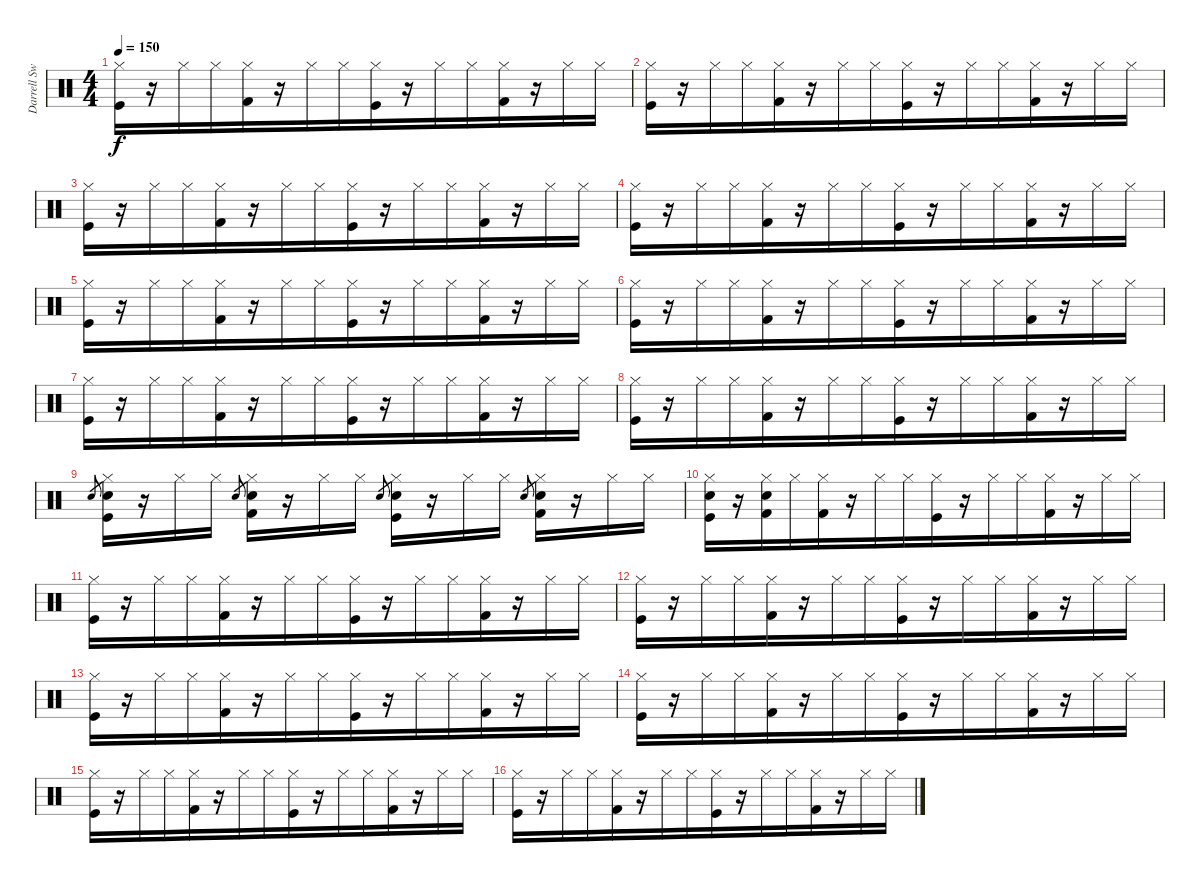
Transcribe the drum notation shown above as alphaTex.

\track ("Darrell Sweet (drums)" "Darrell Sw") {instrument percussion}
\staff {score}
\articulation defaults
\ts (4 4)
\tempo 150
\clef neutral
\ks c
("Hi-Hat (closed)" "Kick (hit)").16{dy f} r.16 "Hi-Hat (closed)".16 "Hi-Hat (closed)".16{beam merge} ("Hi-Hat (closed)" "Kick (hit) 2").16 r.16 "Hi-Hat (closed)".16 "Hi-Hat (closed)".16{beam merge} ("Hi-Hat (closed)" "Kick (hit)").16 r.16 "Hi-Hat (closed)".16 "Hi-Hat (closed)".16{beam merge} ("Hi-Hat (closed)" "Kick (hit) 2").16 r.16 "Hi-Hat (closed)".16 "Hi-Hat (closed)".16 |
("Hi-Hat (closed)" "Kick (hit)").16 r.16 "Hi-Hat (closed)".16 "Hi-Hat (closed)".16{beam merge} ("Hi-Hat (closed)" "Kick (hit) 2").16 r.16 "Hi-Hat (closed)".16 "Hi-Hat (closed)".16{beam merge} ("Hi-Hat (closed)" "Kick (hit)").16 r.16 "Hi-Hat (closed)".16 "Hi-Hat (closed)".16{beam merge} ("Hi-Hat (closed)" "Kick (hit) 2").16 r.16 "Hi-Hat (closed)".16 "Hi-Hat (closed)".16 |
("Hi-Hat (closed)" "Kick (hit)").16 r.16 "Hi-Hat (closed)".16 "Hi-Hat (closed)".16{beam merge} ("Hi-Hat (closed)" "Kick (hit) 2").16 r.16 "Hi-Hat (closed)".16 "Hi-Hat (closed)".16{beam merge} ("Hi-Hat (closed)" "Kick (hit)").16 r.16 "Hi-Hat (closed)".16 "Hi-Hat (closed)".16{beam merge} ("Hi-Hat (closed)" "Kick (hit) 2").16 r.16 "Hi-Hat (closed)".16 "Hi-Hat (closed)".16 |
("Hi-Hat (closed)" "Kick (hit)").16 r.16 "Hi-Hat (closed)".16 "Hi-Hat (closed)".16{beam merge} ("Hi-Hat (closed)" "Kick (hit) 2").16 r.16 "Hi-Hat (closed)".16 "Hi-Hat (closed)".16{beam merge} ("Hi-Hat (closed)" "Kick (hit)").16 r.16 "Hi-Hat (closed)".16 "Hi-Hat (closed)".16{beam merge} ("Hi-Hat (closed)" "Kick (hit) 2").16 r.16 "Hi-Hat (closed)".16 "Hi-Hat (closed)".16 |
("Hi-Hat (closed)" "Kick (hit)").16 r.16 "Hi-Hat (closed)".16 "Hi-Hat (closed)".16{beam merge} ("Hi-Hat (closed)" "Kick (hit) 2").16 r.16 "Hi-Hat (closed)".16 "Hi-Hat (closed)".16{beam merge} ("Hi-Hat (closed)" "Kick (hit)").16 r.16 "Hi-Hat (closed)".16 "Hi-Hat (closed)".16{beam merge} ("Hi-Hat (closed)" "Kick (hit) 2").16 r.16 "Hi-Hat (closed)".16 "Hi-Hat (closed)".16 |
("Hi-Hat (closed)" "Kick (hit)").16 r.16 "Hi-Hat (closed)".16 "Hi-Hat (closed)".16{beam merge} ("Hi-Hat (closed)" "Kick (hit) 2").16 r.16 "Hi-Hat (closed)".16 "Hi-Hat (closed)".16{beam merge} ("Hi-Hat (closed)" "Kick (hit)").16 r.16 "Hi-Hat (closed)".16 "Hi-Hat (closed)".16{beam merge} ("Hi-Hat (closed)" "Kick (hit) 2").16 r.16 "Hi-Hat (closed)".16 "Hi-Hat (closed)".16 |
("Hi-Hat (closed)" "Kick (hit)").16 r.16 "Hi-Hat (closed)".16 "Hi-Hat (closed)".16{beam merge} ("Hi-Hat (closed)" "Kick (hit) 2").16 r.16 "Hi-Hat (closed)".16 "Hi-Hat (closed)".16{beam merge} ("Hi-Hat (closed)" "Kick (hit)").16 r.16 "Hi-Hat (closed)".16 "Hi-Hat (closed)".16{beam merge} ("Hi-Hat (closed)" "Kick (hit) 2").16 r.16 "Hi-Hat (closed)".16 "Hi-Hat (closed)".16 |
("Hi-Hat (closed)" "Kick (hit)").16 r.16 "Hi-Hat (closed)".16 "Hi-Hat (closed)".16{beam merge} ("Hi-Hat (closed)" "Kick (hit) 2").16 r.16 "Hi-Hat (closed)".16 "Hi-Hat (closed)".16{beam merge} ("Hi-Hat (closed)" "Kick (hit)").16 r.16 "Hi-Hat (closed)".16 "Hi-Hat (closed)".16{beam merge} ("Hi-Hat (closed)" "Kick (hit) 2").16 r.16 "Hi-Hat (closed)".16 "Hi-Hat (closed)".16 |
"Snare (hit) 2".8{gr} ("Hi-Hat (closed)" "Kick (hit)" "Snare (hit) 2").16 r.16 "Hi-Hat (closed)".16 "Hi-Hat (closed)".16 "Snare (hit) 2".8{gr beam merge} ("Hi-Hat (closed)" "Kick (hit) 2" "Snare (hit) 2").16 r.16 "Hi-Hat (closed)".16 "Hi-Hat (closed)".16 "Snare (hit) 2".8{gr beam merge} ("Hi-Hat (closed)" "Kick (hit)" "Snare (hit) 2").16 r.16 "Hi-Hat (closed)".16 "Hi-Hat (closed)".16 "Snare (hit) 2".8{gr beam merge} ("Hi-Hat (closed)" "Kick (hit) 2" "Snare (hit) 2").16 r.16 "Hi-Hat (closed)".16 "Hi-Hat (closed)".16 |
("Hi-Hat (closed)" "Kick (hit)" "Snare (hit) 2").16 r.16 ("Hi-Hat (closed)" "Kick (hit) 2" "Snare (hit) 2").16 "Hi-Hat (closed)".16{beam merge} ("Hi-Hat (closed)" "Kick (hit) 2").16 r.16 "Hi-Hat (closed)".16 "Hi-Hat (closed)".16{beam merge} ("Hi-Hat (closed)" "Kick (hit)").16 r.16 "Hi-Hat (closed)".16 "Hi-Hat (closed)".16{beam merge} ("Hi-Hat (closed)" "Kick (hit) 2").16 r.16 "Hi-Hat (closed)".16 "Hi-Hat (closed)".16 |
("Hi-Hat (closed)" "Kick (hit)").16 r.16 "Hi-Hat (closed)".16 "Hi-Hat (closed)".16{beam merge} ("Hi-Hat (closed)" "Kick (hit) 2").16 r.16 "Hi-Hat (closed)".16 "Hi-Hat (closed)".16{beam merge} ("Hi-Hat (closed)" "Kick (hit)").16 r.16 "Hi-Hat (closed)".16 "Hi-Hat (closed)".16{beam merge} ("Hi-Hat (closed)" "Kick (hit) 2").16 r.16 "Hi-Hat (closed)".16 "Hi-Hat (closed)".16 |
("Hi-Hat (closed)" "Kick (hit)").16 r.16 "Hi-Hat (closed)".16 "Hi-Hat (closed)".16{beam merge} ("Hi-Hat (closed)" "Kick (hit) 2").16 r.16 "Hi-Hat (closed)".16 "Hi-Hat (closed)".16{beam merge} ("Hi-Hat (closed)" "Kick (hit)").16 r.16 "Hi-Hat (closed)".16 "Hi-Hat (closed)".16{beam merge} ("Hi-Hat (closed)" "Kick (hit) 2").16 r.16 "Hi-Hat (closed)".16 "Hi-Hat (closed)".16 |
("Hi-Hat (closed)" "Kick (hit)").16 r.16 "Hi-Hat (closed)".16 "Hi-Hat (closed)".16{beam merge} ("Hi-Hat (closed)" "Kick (hit) 2").16 r.16 "Hi-Hat (closed)".16 "Hi-Hat (closed)".16{beam merge} ("Hi-Hat (closed)" "Kick (hit)").16 r.16 "Hi-Hat (closed)".16 "Hi-Hat (closed)".16{beam merge} ("Hi-Hat (closed)" "Kick (hit) 2").16 r.16 "Hi-Hat (closed)".16 "Hi-Hat (closed)".16 |
("Hi-Hat (closed)" "Kick (hit)").16 r.16 "Hi-Hat (closed)".16 "Hi-Hat (closed)".16{beam merge} ("Hi-Hat (closed)" "Kick (hit) 2").16 r.16 "Hi-Hat (closed)".16 "Hi-Hat (closed)".16{beam merge} ("Hi-Hat (closed)" "Kick (hit)").16 r.16 "Hi-Hat (closed)".16 "Hi-Hat (closed)".16{beam merge} ("Hi-Hat (closed)" "Kick (hit) 2").16 r.16 "Hi-Hat (closed)".16 "Hi-Hat (closed)".16 |
("Hi-Hat (closed)" "Kick (hit)").16 r.16 "Hi-Hat (closed)".16 "Hi-Hat (closed)".16{beam merge} ("Hi-Hat (closed)" "Kick (hit) 2").16 r.16 "Hi-Hat (closed)".16 "Hi-Hat (closed)".16{beam merge} ("Hi-Hat (closed)" "Kick (hit)").16 r.16 "Hi-Hat (closed)".16 "Hi-Hat (closed)".16{beam merge} ("Hi-Hat (closed)" "Kick (hit) 2").16 r.16 "Hi-Hat (closed)".16 "Hi-Hat (closed)".16 |
("Hi-Hat (closed)" "Kick (hit)").16 r.16 "Hi-Hat (closed)".16 "Hi-Hat (closed)".16{beam merge} ("Hi-Hat (closed)" "Kick (hit) 2").16 r.16 "Hi-Hat (closed)".16 "Hi-Hat (closed)".16{beam merge} ("Hi-Hat (closed)" "Kick (hit)").16 r.16 "Hi-Hat (closed)".16 "Hi-Hat (closed)".16{beam merge} ("Hi-Hat (closed)" "Kick (hit) 2").16 r.16 "Hi-Hat (closed)".16 "Hi-Hat (closed)".16
